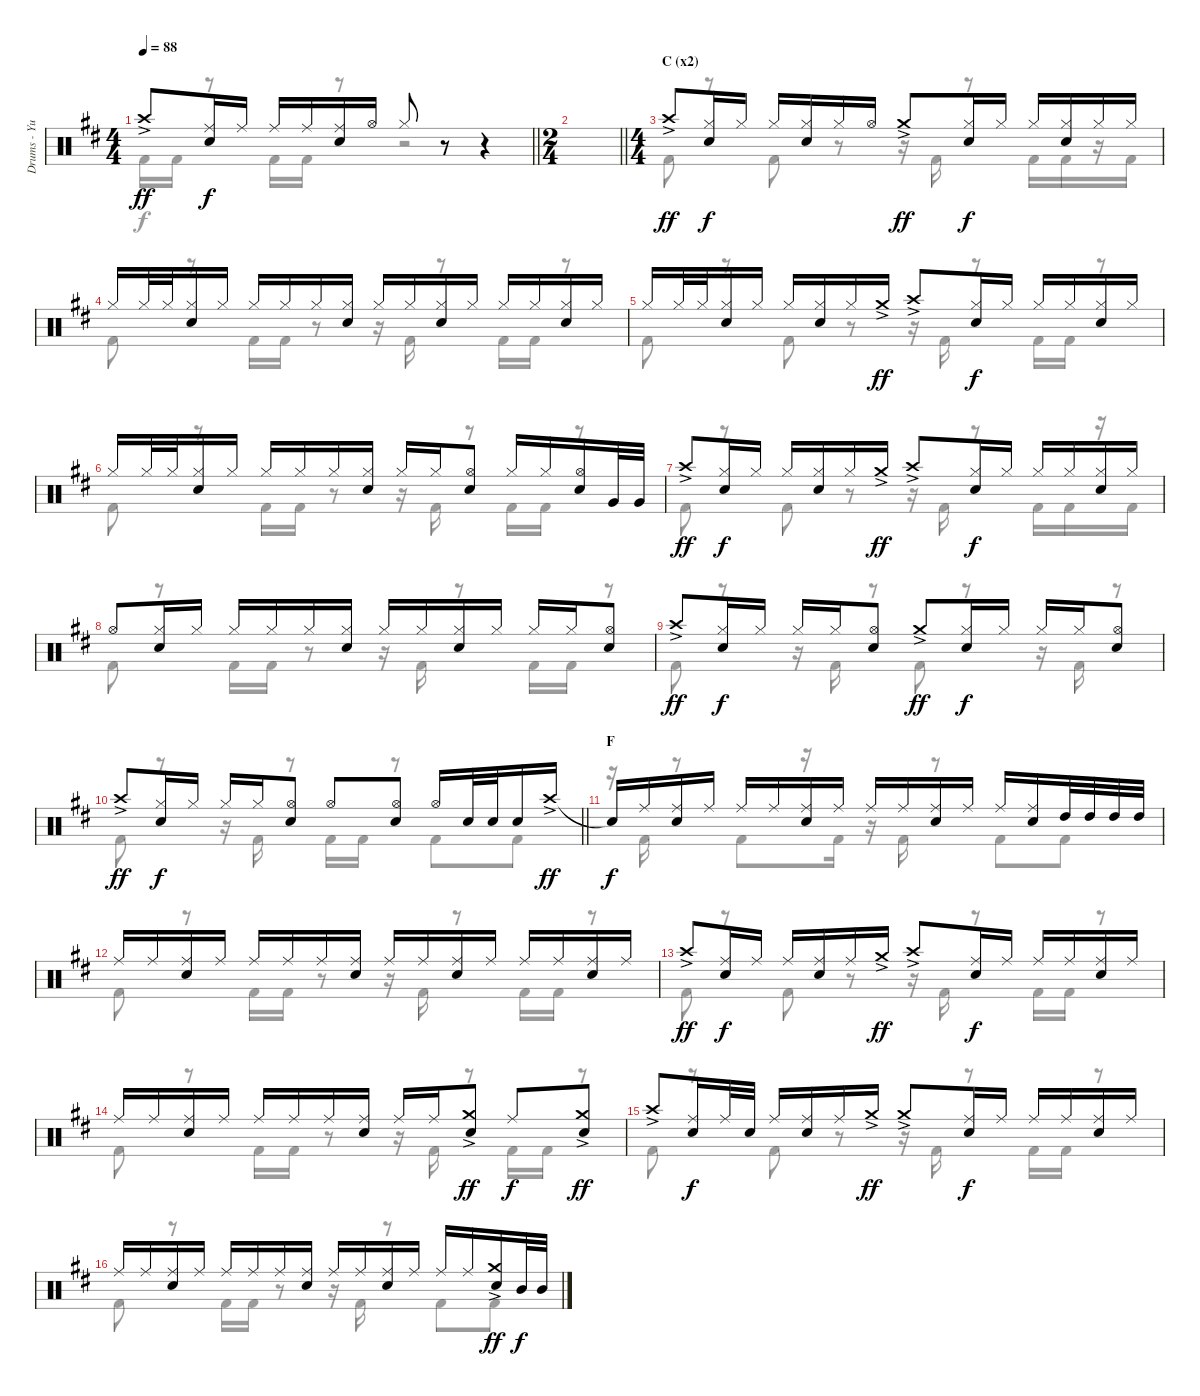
\track ("Drums - Yuuya" "Drums - Yu") {instrument percussion}
\staff {score}
\articulation defaults
\voice
\ts (4 4)
\tempo 88
\clef neutral
\barLineRight lightlight
\ks d "Crash high (hit)"{ac}.8{dy ff}
("Ride (middle)" "Snare (hit) 2").16{dy f} "Ride (middle)".16 "Ride (middle)".16 "Ride (middle)".16 ("Ride (middle)" "Snare (hit) 2").16 "Hi-Hat (open)".16 "Hi-Hat (closed)".8 r.8 r.4 |
\ts (2 4)
\barLineRight lightlight
|
\ts (4 4)
\section ("" "C (x2)")
"Crash high (hit)"{ac}.8{dy ff} ("Hi-Hat (closed)" "Snare (hit) 2").16{dy f} "Hi-Hat (closed)".16 "Hi-Hat (closed)".16 ("Hi-Hat (closed)" "Snare (hit) 2").16 "Hi-Hat (closed)".16 "Hi-Hat (open)".16 "Crash medium (hit)"{ac}.8{dy ff} ("Hi-Hat (closed)" "Snare (hit) 2").16{dy f} "Hi-Hat (closed)".16 "Hi-Hat (closed)".16 ("Hi-Hat (closed)" "Snare (hit) 2").16 "Hi-Hat (closed)".16 "Hi-Hat (closed)".16 |
"Hi-Hat (closed)".16 "Hi-Hat (closed)".32 "Hi-Hat (closed)".32 ("Hi-Hat (closed)" "Snare (hit) 2").16 "Hi-Hat (closed)".16 "Hi-Hat (closed)".16 "Hi-Hat (closed)".16 "Hi-Hat (closed)".16 ("Hi-Hat (closed)" "Snare (hit) 2").16 "Hi-Hat (closed)".16 "Hi-Hat (closed)".16 ("Hi-Hat (closed)" "Snare (hit) 2").16 "Hi-Hat (closed)".16 "Hi-Hat (closed)".16 "Hi-Hat (closed)".16 ("Hi-Hat (closed)" "Snare (hit) 2").16 "Hi-Hat (closed)".16 |
"Hi-Hat (closed)".16 "Hi-Hat (closed)".32 "Hi-Hat (closed)".32 ("Hi-Hat (closed)" "Snare (hit) 2").16 "Hi-Hat (closed)".16 "Hi-Hat (closed)".16 ("Hi-Hat (closed)" "Snare (hit) 2").16 "Hi-Hat (closed)".16 "Crash medium (hit)"{ac}.16{dy ff} "Crash high (hit)"{ac}.8 ("Hi-Hat (closed)" "Snare (hit) 2").16{dy f} "Hi-Hat (closed)".16 "Hi-Hat (closed)".16 "Hi-Hat (closed)".16 ("Hi-Hat (closed)" "Snare (hit) 2").16 "Hi-Hat (closed)".16 |
"Hi-Hat (closed)".16 "Hi-Hat (closed)".32 "Hi-Hat (closed)".32 ("Hi-Hat (closed)" "Snare (hit) 2").16 "Hi-Hat (closed)".16 "Hi-Hat (closed)".16 "Hi-Hat (closed)".16 "Hi-Hat (closed)".16 ("Hi-Hat (closed)" "Snare (hit) 2").16 "Hi-Hat (closed)".16 "Hi-Hat (closed)".16 ("Hi-Hat (open)" "Snare (hit) 2").8 "Hi-Hat (closed)".16 "Hi-Hat (closed)".16 ("Hi-Hat (open)" "Snare (hit) 2").16 "Very Low Tom (hit)".32 "Very Low Tom (hit)".32 |
"Crash high (hit)"{ac}.8{dy ff} ("Hi-Hat (closed)" "Snare (hit) 2").16{dy f} "Hi-Hat (closed)".16 "Hi-Hat (closed)".16 ("Hi-Hat (closed)" "Snare (hit) 2").16 "Hi-Hat (closed)".16 "Crash medium (hit)"{ac}.16{dy ff} "Crash high (hit)"{ac}.8 ("Hi-Hat (closed)" "Snare (hit) 2").16{dy f} "Hi-Hat (closed)".16 "Hi-Hat (closed)".16 "Hi-Hat (closed)".16 ("Hi-Hat (closed)" "Snare (hit) 2").16 "Hi-Hat (closed)".16 |
"Hi-Hat (open)".8 ("Hi-Hat (closed)" "Snare (hit) 2").16 "Hi-Hat (closed)".16 "Hi-Hat (closed)".16 "Hi-Hat (closed)".16 "Hi-Hat (closed)".16 ("Hi-Hat (closed)" "Snare (hit) 2").16 "Hi-Hat (closed)".16 "Hi-Hat (closed)".16 ("Hi-Hat (closed)" "Snare (hit) 2").16 "Hi-Hat (closed)".16 "Hi-Hat (closed)".16 "Hi-Hat (closed)".16 ("Hi-Hat (open)" "Snare (hit) 2").8 |
"Crash high (hit)"{ac}.8{dy ff} ("Hi-Hat (closed)" "Snare (hit) 2").16{dy f} "Hi-Hat (closed)".16 "Hi-Hat (closed)".16 "Hi-Hat (closed)".16 ("Hi-Hat (open)" "Snare (hit) 2").8 "Crash medium (hit)"{ac}.8{dy ff} ("Hi-Hat (closed)" "Snare (hit) 2").16{dy f} "Hi-Hat (closed)".16 "Hi-Hat (closed)".16 "Hi-Hat (closed)".16 ("Hi-Hat (open)" "Snare (hit) 2").8 |
\barLineRight lightlight "Crash high (hit)"{ac}.8{dy ff}
("Hi-Hat (closed)" "Snare (hit) 2").16{dy f} "Hi-Hat (closed)".16 "Hi-Hat (closed)".16 "Hi-Hat (closed)".16 ("Hi-Hat (open)" "Snare (hit) 2").8 "Hi-Hat (open)".8 ("Hi-Hat (open)" "Snare (hit) 2").8 "Hi-Hat (open)".16 "Snare (hit) 2".32 "Snare (hit) 2".32 "Snare (hit) 2".16 "Crash high (hit)"{ac}.16{dy ff} |
\section ("" "F")
"Snare (hit)"{t}.16{dy f} "Ride (middle)".16 ("Ride (middle)" "Snare (hit) 2").16 "Ride (middle)".16 "Ride (middle)".16 "Ride (middle)".16 ("Ride (middle)" "Snare (hit) 2").16 "Ride (middle)".16 "Ride (middle)".16 "Ride (middle)".16 ("Ride (middle)" "Snare (hit) 2").16 "Ride (middle)".16 "Ride (middle)".16 ("Ride (middle)" "Snare (hit) 2").16 "High Tom (hit)".32 "High Tom (hit)".32 "High Tom (hit)".32 "High Tom (hit)".32 |
"Ride (middle)".16 "Ride (middle)".16 ("Ride (middle)" "Snare (hit) 2").16 "Ride (middle)".16 "Ride (middle)".16 "Ride (middle)".16 "Ride (middle)".16 ("Ride (middle)" "Snare (hit) 2").16 "Ride (middle)".16 "Ride (middle)".16 ("Ride (middle)" "Snare (hit) 2").16 "Ride (middle)".16 "Ride (middle)".16 "Ride (middle)".16 ("Ride (middle)" "Snare (hit) 2").16 "Ride (middle)".16 |
"Crash high (hit)"{ac}.8{dy ff} ("Ride (middle)" "Snare (hit) 2").16{dy f} "Ride (middle)".16 "Ride (middle)".16 ("Ride (middle)" "Snare (hit) 2").16 "Ride (middle)".16 "Crash medium (hit)"{ac}.16{dy ff} "Crash high (hit)"{ac}.8 ("Ride (middle)" "Snare (hit) 2").16{dy f} "Ride (middle)".16 "Ride (middle)".16 "Ride (middle)".16 ("Ride (middle)" "Snare (hit) 2").16 "Ride (middle)".16 |
"Ride (middle)".16 "Ride (middle)".16 ("Ride (middle)" "Snare (hit) 2").16 "Ride (middle)".16 "Ride (middle)".16 "Ride (middle)".16 "Ride (middle)".16 ("Ride (middle)" "Snare (hit) 2").16 "Ride (middle)".16 "Ride (middle)".16 ("Crash medium (hit)"{ac} "Snare (hit) 2").8{dy ff} "Ride (middle)".8{dy f} ("Crash medium (hit)"{ac} "Snare (hit) 2").8{dy ff} |
"Crash high (hit)"{ac}.8 ("Ride (middle)" "Snare (hit) 2").16{dy f} "Ride (middle)".32 "Snare (hit) 2".32 "Ride (middle)".16 ("Ride (middle)" "Snare (hit) 2").16 "Ride (middle)".16 "Crash medium (hit)"{ac}.16{dy ff} "Crash medium (hit)"{ac}.8 ("Ride (middle)" "Snare (hit) 2").16{dy f} "Ride (middle)".16 "Ride (middle)".16 "Ride (middle)".16 ("Ride (middle)" "Snare (hit) 2").16 "Ride (middle)".16 |
"Ride (middle)".16 "Ride (middle)".16 ("Ride (middle)" "Snare (hit) 2").16 "Ride (middle)".16 "Ride (middle)".16 "Ride (middle)".16 "Ride (middle)".16 ("Ride (middle)" "Snare (hit) 2").16 "Ride (middle)".16 "Ride (middle)".16 ("Ride (middle)" "Snare (hit) 2").16 "Ride (middle)".16 "Ride (middle)".16 "Ride (middle)".16 ("Crash medium (hit)"{ac} "Snare (hit) 2").16{dy ff} "Mid Tom (hit)".32{dy f} "Mid Tom (hit)".32
\voice
\clef neutral
\ottava regular
\simile none
\barLineRight lightlight
\ks d "Kick (hit) 2".16{dy f} "Kick (hit) 2".16
r.8 "Kick (hit) 2".16 "Kick (hit) 2".16 r.8 r.2 |
\barLineRight lightlight
|
"Kick (hit) 2".8 r.8 "Kick (hit) 2".8 r.8 r.16 "Kick (hit) 2".16 r.8 "Kick (hit) 2".16 "Kick (hit) 2".16 r.16 "Kick (hit) 2".16 |
"Kick (hit) 2".8 r.8 "Kick (hit) 2".16 "Kick (hit) 2".16 r.8 r.16 "Kick (hit) 2".16 r.8 "Kick (hit) 2".16 "Kick (hit) 2".16 r.8 |
"Kick (hit) 2".8 r.8 "Kick (hit) 2".8 r.8 r.16 "Kick (hit) 2".16 r.8 "Kick (hit) 2".16 "Kick (hit) 2".16 r.8 |
"Kick (hit) 2".8 r.8 "Kick (hit) 2".16 "Kick (hit) 2".16 r.8 r.16 "Kick (hit) 2".16 r.8 "Kick (hit) 2".16 "Kick (hit) 2".16 r.8 |
"Kick (hit) 2".8 r.8 "Kick (hit) 2".8 r.8 r.16 "Kick (hit) 2".16 r.8 "Kick (hit) 2".16 "Kick (hit) 2".16 r.16 "Kick (hit) 2".16 |
"Kick (hit) 2".8 r.8 "Kick (hit) 2".16 "Kick (hit) 2".16 r.8 r.16 "Kick (hit) 2".16 r.8 "Kick (hit) 2".16 "Kick (hit) 2".16 r.8 |
"Kick (hit) 2".8 r.8 r.16 "Kick (hit) 2".16 r.8 "Kick (hit) 2".8 r.8 r.16 "Kick (hit) 2".16 r.8 |
\barLineRight lightlight "Kick (hit) 2".8
r.8 r.16 "Kick (hit) 2".16 r.8 "Kick (hit) 2".16 "Kick (hit) 2".16 r.8 "Kick (hit) 2".8 "Kick (hit) 2".8 |
r.16 "Kick (hit) 2".16 r.8 "Kick (hit) 2".8 r.16 "Kick (hit) 2".16 r.16 "Kick (hit) 2".16 r.8 "Kick (hit) 2".8 "Kick (hit) 2".8 |
"Kick (hit) 2".8 r.8 "Kick (hit) 2".16 "Kick (hit) 2".16 r.8 r.16 "Kick (hit) 2".16 r.8 "Kick (hit) 2".16 "Kick (hit) 2".16 r.8 |
"Kick (hit) 2".8 r.8 "Kick (hit) 2".8 r.8 r.16 "Kick (hit) 2".16 r.8 "Kick (hit) 2".16 "Kick (hit) 2".16 r.8 |
"Kick (hit) 2".8 r.8 "Kick (hit) 2".16 "Kick (hit) 2".16 r.8 r.16 "Kick (hit) 2".16 r.8 "Kick (hit) 2".16 "Kick (hit) 2".16 r.8 |
"Kick (hit) 2".8 r.8 "Kick (hit) 2".8 r.8 r.16 "Kick (hit) 2".16 r.8 "Kick (hit) 2".16 "Kick (hit) 2".16 r.8 |
"Kick (hit) 2".8 r.8 "Kick (hit) 2".16 "Kick (hit) 2".16 r.8 r.16 "Kick (hit) 2".16 r.8 "Kick (hit) 2".8 "Kick (hit) 2".8
